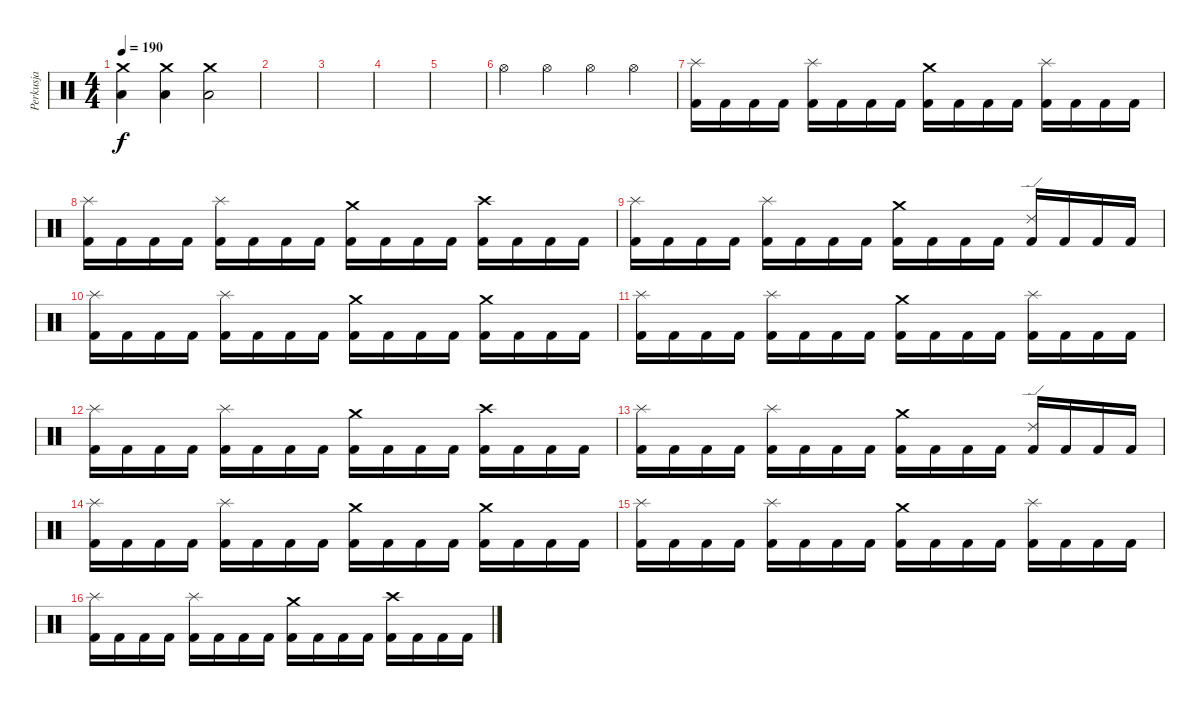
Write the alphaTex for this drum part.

\track ("Perkusja" "Perkusja") {instrument percussion}
\staff {score}
\articulation defaults
\ts (4 4)
\tempo 190
\clef neutral
\ks c
("Crash medium (hit)" "Low Tom (hit)").4{dy f} ("Crash medium (hit)" "Low Tom (hit)").4 ("Crash medium (hit)" "Low Tom (hit)").2 |
|
|
|
|
"Hi-Hat (open)".4 "Hi-Hat (open)".4 "Hi-Hat (open)".4 "Hi-Hat (open)".4 |
("Splash (hit)" "Kick (hit) 2").16{volume 12} "Kick (hit) 2".16 "Kick (hit) 2".16 "Kick (hit) 2".16 ("Splash (hit)" "Kick (hit) 2").16 "Kick (hit) 2".16 "Kick (hit) 2".16 "Kick (hit) 2".16 ("Crash medium (hit)" "Kick (hit) 2").16 "Kick (hit) 2".16 "Kick (hit) 2".16 "Kick (hit) 2".16 ("Splash (hit)" "Kick (hit) 2").16 "Kick (hit) 2".16 "Kick (hit) 2".16 "Kick (hit) 2".16 |
("Splash (hit)" "Kick (hit) 2").16 "Kick (hit) 2".16 "Kick (hit) 2".16 "Kick (hit) 2".16 ("Splash (hit)" "Kick (hit) 2").16 "Kick (hit) 2".16 "Kick (hit) 2".16 "Kick (hit) 2".16 ("Crash medium (hit)" "Kick (hit) 2").16 "Kick (hit) 2".16 "Kick (hit) 2".16 "Kick (hit) 2".16 ("Crash high (hit)" "Kick (hit) 2").16 "Kick (hit) 2".16 "Kick (hit) 2".16 "Kick (hit) 2".16 |
("Splash (hit)" "Kick (hit) 2").16 "Kick (hit) 2".16 "Kick (hit) 2".16 "Kick (hit) 2".16 ("Splash (hit)" "Kick (hit) 2").16 "Kick (hit) 2".16 "Kick (hit) 2".16 "Kick (hit) 2".16 ("Crash medium (hit)" "Kick (hit) 2").16 "Kick (hit) 2".16 "Kick (hit) 2".16 "Kick (hit) 2".16 ("Ride (edge) 2" "Kick (hit) 2").16 "Kick (hit) 2".16 "Kick (hit) 2".16 "Kick (hit) 2".16 |
("Splash (hit)" "Kick (hit) 2").16 "Kick (hit) 2".16 "Kick (hit) 2".16 "Kick (hit) 2".16 ("Splash (hit)" "Kick (hit) 2").16 "Kick (hit) 2".16 "Kick (hit) 2".16 "Kick (hit) 2".16 ("Crash medium (hit)" "Kick (hit) 2").16 "Kick (hit) 2".16 "Kick (hit) 2".16 "Kick (hit) 2".16 ("Crash medium (hit)" "Kick (hit) 2").16 "Kick (hit) 2".16 "Kick (hit) 2".16 "Kick (hit) 2".16 |
("Splash (hit)" "Kick (hit) 2").16 "Kick (hit) 2".16 "Kick (hit) 2".16 "Kick (hit) 2".16 ("Splash (hit)" "Kick (hit) 2").16 "Kick (hit) 2".16 "Kick (hit) 2".16 "Kick (hit) 2".16 ("Crash medium (hit)" "Kick (hit) 2").16 "Kick (hit) 2".16 "Kick (hit) 2".16 "Kick (hit) 2".16 ("Splash (hit)" "Kick (hit) 2").16 "Kick (hit) 2".16 "Kick (hit) 2".16 "Kick (hit) 2".16 |
("Splash (hit)" "Kick (hit) 2").16 "Kick (hit) 2".16 "Kick (hit) 2".16 "Kick (hit) 2".16 ("Splash (hit)" "Kick (hit) 2").16 "Kick (hit) 2".16 "Kick (hit) 2".16 "Kick (hit) 2".16 ("Crash medium (hit)" "Kick (hit) 2").16 "Kick (hit) 2".16 "Kick (hit) 2".16 "Kick (hit) 2".16 ("Crash high (hit)" "Kick (hit) 2").16 "Kick (hit) 2".16 "Kick (hit) 2".16 "Kick (hit) 2".16 |
("Splash (hit)" "Kick (hit) 2").16 "Kick (hit) 2".16 "Kick (hit) 2".16 "Kick (hit) 2".16 ("Splash (hit)" "Kick (hit) 2").16 "Kick (hit) 2".16 "Kick (hit) 2".16 "Kick (hit) 2".16 ("Crash medium (hit)" "Kick (hit) 2").16 "Kick (hit) 2".16 "Kick (hit) 2".16 "Kick (hit) 2".16 ("Ride (edge) 2" "Kick (hit) 2").16 "Kick (hit) 2".16 "Kick (hit) 2".16 "Kick (hit) 2".16 |
("Splash (hit)" "Kick (hit) 2").16 "Kick (hit) 2".16 "Kick (hit) 2".16 "Kick (hit) 2".16 ("Splash (hit)" "Kick (hit) 2").16 "Kick (hit) 2".16 "Kick (hit) 2".16 "Kick (hit) 2".16 ("Crash medium (hit)" "Kick (hit) 2").16 "Kick (hit) 2".16 "Kick (hit) 2".16 "Kick (hit) 2".16 ("Crash medium (hit)" "Kick (hit) 2").16 "Kick (hit) 2".16 "Kick (hit) 2".16 "Kick (hit) 2".16 |
("Splash (hit)" "Kick (hit) 2").16 "Kick (hit) 2".16 "Kick (hit) 2".16 "Kick (hit) 2".16 ("Splash (hit)" "Kick (hit) 2").16 "Kick (hit) 2".16 "Kick (hit) 2".16 "Kick (hit) 2".16 ("Crash medium (hit)" "Kick (hit) 2").16 "Kick (hit) 2".16 "Kick (hit) 2".16 "Kick (hit) 2".16 ("Splash (hit)" "Kick (hit) 2").16 "Kick (hit) 2".16 "Kick (hit) 2".16 "Kick (hit) 2".16 |
("Splash (hit)" "Kick (hit) 2").16 "Kick (hit) 2".16 "Kick (hit) 2".16 "Kick (hit) 2".16 ("Splash (hit)" "Kick (hit) 2").16 "Kick (hit) 2".16 "Kick (hit) 2".16 "Kick (hit) 2".16 ("Crash medium (hit)" "Kick (hit) 2").16 "Kick (hit) 2".16 "Kick (hit) 2".16 "Kick (hit) 2".16 ("Crash high (hit)" "Kick (hit) 2").16 "Kick (hit) 2".16 "Kick (hit) 2".16 "Kick (hit) 2".16
